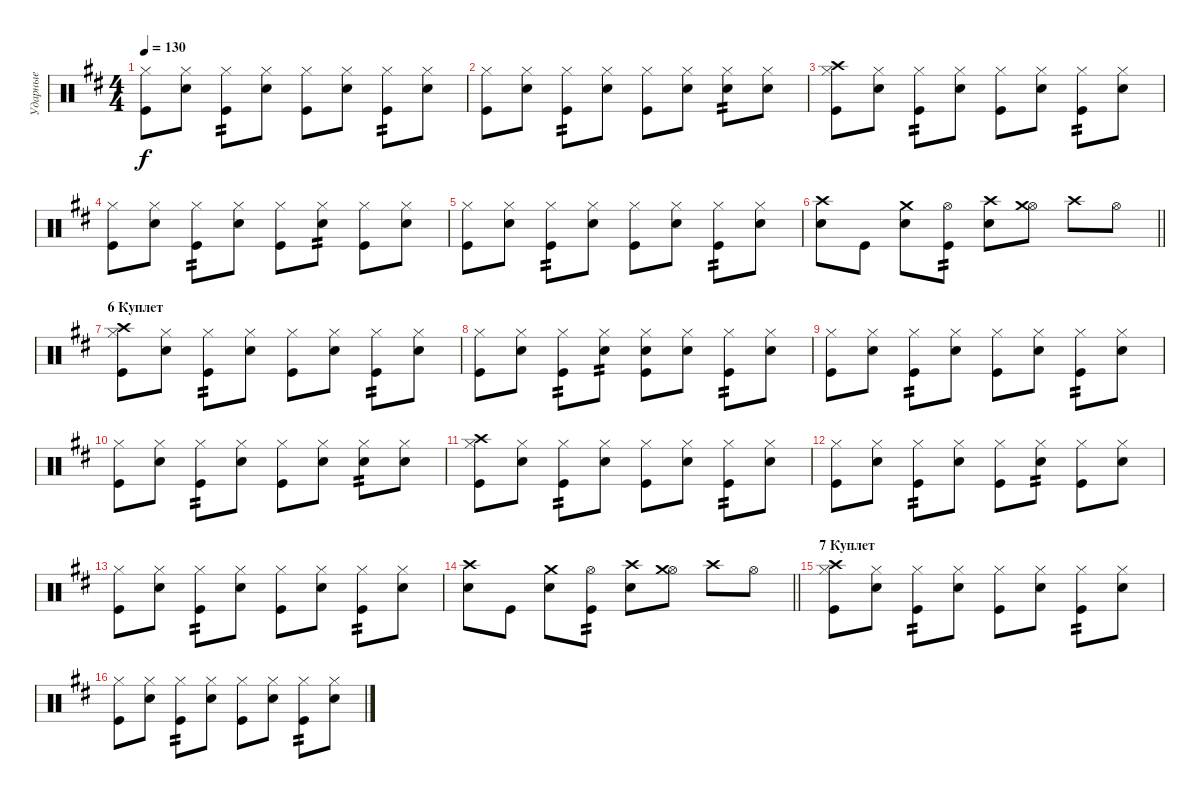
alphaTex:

\track ("Ударные" "Ударные") {instrument percussion}
\staff {score}
\articulation defaults
\ts (4 4)
\tempo 130
\clef neutral
\ks bminor
("Hi-Hat (closed)" "Kick (hit)").8{dy f} ("Hi-Hat (closed)" "Electric Snare (hit)").8 ("Hi-Hat (closed)" "Kick (hit)").8{tp 2} ("Hi-Hat (closed)" "Electric Snare (hit)").8 ("Hi-Hat (closed)" "Kick (hit)").8 ("Hi-Hat (closed)" "Electric Snare (hit)").8 ("Hi-Hat (closed)" "Kick (hit)").8{tp 2} ("Hi-Hat (closed)" "Electric Snare (hit)").8 |
("Hi-Hat (closed)" "Kick (hit)").8 ("Hi-Hat (closed)" "Electric Snare (hit)").8 ("Hi-Hat (closed)" "Kick (hit)").8{tp 2} ("Hi-Hat (closed)" "Electric Snare (hit)").8 ("Hi-Hat (closed)" "Kick (hit)").8 ("Hi-Hat (closed)" "Electric Snare (hit)").8 ("Hi-Hat (closed)" "Electric Snare (hit)").8{tp 2} ("Hi-Hat (closed)" "Electric Snare (hit)").8 |
("Hi-Hat (closed)" "Crash high (hit)" "Kick (hit)").8 ("Hi-Hat (closed)" "Electric Snare (hit)").8 ("Hi-Hat (closed)" "Kick (hit)").8{tp 2} ("Hi-Hat (closed)" "Electric Snare (hit)").8 ("Hi-Hat (closed)" "Kick (hit)").8 ("Hi-Hat (closed)" "Electric Snare (hit)").8 ("Hi-Hat (closed)" "Kick (hit)").8{tp 2} ("Hi-Hat (closed)" "Electric Snare (hit)").8 |
("Hi-Hat (closed)" "Kick (hit)").8 ("Hi-Hat (closed)" "Electric Snare (hit)").8 ("Hi-Hat (closed)" "Kick (hit)").8{tp 2} ("Hi-Hat (closed)" "Electric Snare (hit)").8 ("Hi-Hat (closed)" "Kick (hit)").8 ("Hi-Hat (closed)" "Electric Snare (hit)").8{tp 2} ("Hi-Hat (closed)" "Kick (hit)").8 ("Hi-Hat (closed)" "Electric Snare (hit)").8 |
("Hi-Hat (closed)" "Kick (hit)").8 ("Hi-Hat (closed)" "Electric Snare (hit)").8 ("Hi-Hat (closed)" "Kick (hit)").8{tp 2} ("Hi-Hat (closed)" "Electric Snare (hit)").8 ("Hi-Hat (closed)" "Kick (hit)").8 ("Hi-Hat (closed)" "Electric Snare (hit)").8 ("Hi-Hat (closed)" "Kick (hit)").8{tp 2} ("Hi-Hat (closed)" "Electric Snare (hit)").8 |
\barLineRight lightlight
("Crash high (hit)" "Electric Snare (hit)").8 "Kick (hit)".8 ("Crash medium (hit)" "Electric Snare (hit)").8 ("Hi-Hat (open)" "Kick (hit)").8{tp 2} ("Crash high (hit)" "Electric Snare (hit)").8 ("Hi-Hat (open)" "Crash medium (hit)").8 "Crash high (hit)".8 "Hi-Hat (open)".8 |
\section ("" "6 Куплет")
("Hi-Hat (closed)" "Crash high (hit)" "Kick (hit)").8 ("Hi-Hat (closed)" "Electric Snare (hit)").8 ("Hi-Hat (closed)" "Kick (hit)").8{tp 2} ("Hi-Hat (closed)" "Electric Snare (hit)").8 ("Hi-Hat (closed)" "Kick (hit)").8 ("Hi-Hat (closed)" "Electric Snare (hit)").8 ("Hi-Hat (closed)" "Kick (hit)").8{tp 2} ("Hi-Hat (closed)" "Electric Snare (hit)").8 |
("Hi-Hat (closed)" "Kick (hit)").8 ("Hi-Hat (closed)" "Electric Snare (hit)").8 ("Hi-Hat (closed)" "Kick (hit)").8{tp 2} ("Hi-Hat (closed)" "Electric Snare (hit)").8{tp 2} ("Hi-Hat (closed)" "Electric Snare (hit)" "Kick (hit)").8 ("Hi-Hat (closed)" "Electric Snare (hit)").8 ("Hi-Hat (closed)" "Kick (hit)").8{tp 2} ("Hi-Hat (closed)" "Electric Snare (hit)").8 |
("Hi-Hat (closed)" "Kick (hit)").8 ("Hi-Hat (closed)" "Electric Snare (hit)").8 ("Hi-Hat (closed)" "Kick (hit)").8{tp 2} ("Hi-Hat (closed)" "Electric Snare (hit)").8 ("Hi-Hat (closed)" "Kick (hit)").8 ("Hi-Hat (closed)" "Electric Snare (hit)").8 ("Hi-Hat (closed)" "Kick (hit)").8{tp 2} ("Hi-Hat (closed)" "Electric Snare (hit)").8 |
("Hi-Hat (closed)" "Kick (hit)").8 ("Hi-Hat (closed)" "Electric Snare (hit)").8 ("Hi-Hat (closed)" "Kick (hit)").8{tp 2} ("Hi-Hat (closed)" "Electric Snare (hit)").8 ("Hi-Hat (closed)" "Kick (hit)").8 ("Hi-Hat (closed)" "Electric Snare (hit)").8 ("Hi-Hat (closed)" "Electric Snare (hit)").8{tp 2} ("Hi-Hat (closed)" "Electric Snare (hit)").8 |
("Hi-Hat (closed)" "Crash high (hit)" "Kick (hit)").8 ("Hi-Hat (closed)" "Electric Snare (hit)").8 ("Hi-Hat (closed)" "Kick (hit)").8{tp 2} ("Hi-Hat (closed)" "Electric Snare (hit)").8 ("Hi-Hat (closed)" "Kick (hit)").8 ("Hi-Hat (closed)" "Electric Snare (hit)").8 ("Hi-Hat (closed)" "Kick (hit)").8{tp 2} ("Hi-Hat (closed)" "Electric Snare (hit)").8 |
("Hi-Hat (closed)" "Kick (hit)").8 ("Hi-Hat (closed)" "Electric Snare (hit)").8 ("Hi-Hat (closed)" "Kick (hit)").8{tp 2} ("Hi-Hat (closed)" "Electric Snare (hit)").8 ("Hi-Hat (closed)" "Kick (hit)").8 ("Hi-Hat (closed)" "Electric Snare (hit)").8{tp 2} ("Hi-Hat (closed)" "Kick (hit)").8 ("Hi-Hat (closed)" "Electric Snare (hit)").8 |
("Hi-Hat (closed)" "Kick (hit)").8 ("Hi-Hat (closed)" "Electric Snare (hit)").8 ("Hi-Hat (closed)" "Kick (hit)").8{tp 2} ("Hi-Hat (closed)" "Electric Snare (hit)").8 ("Hi-Hat (closed)" "Kick (hit)").8 ("Hi-Hat (closed)" "Electric Snare (hit)").8 ("Hi-Hat (closed)" "Kick (hit)").8{tp 2} ("Hi-Hat (closed)" "Electric Snare (hit)").8 |
\barLineRight lightlight
("Crash high (hit)" "Electric Snare (hit)").8 "Kick (hit)".8 ("Crash medium (hit)" "Electric Snare (hit)").8 ("Hi-Hat (open)" "Kick (hit)").8{tp 2} ("Crash high (hit)" "Electric Snare (hit)").8 ("Hi-Hat (open)" "Crash medium (hit)").8 "Crash high (hit)".8 "Hi-Hat (open)".8 |
\section ("" "7 Куплет")
("Hi-Hat (closed)" "Crash high (hit)" "Kick (hit)").8 ("Hi-Hat (closed)" "Electric Snare (hit)").8 ("Hi-Hat (closed)" "Kick (hit)").8{tp 2} ("Hi-Hat (closed)" "Electric Snare (hit)").8 ("Hi-Hat (closed)" "Kick (hit)").8 ("Hi-Hat (closed)" "Electric Snare (hit)").8 ("Hi-Hat (closed)" "Kick (hit)").8{tp 2} ("Hi-Hat (closed)" "Electric Snare (hit)").8 |
("Hi-Hat (closed)" "Kick (hit)").8 ("Hi-Hat (closed)" "Electric Snare (hit)").8 ("Hi-Hat (closed)" "Kick (hit)").8{tp 2} ("Hi-Hat (closed)" "Electric Snare (hit)").8 ("Hi-Hat (closed)" "Kick (hit)").8 ("Hi-Hat (closed)" "Electric Snare (hit)").8 ("Hi-Hat (closed)" "Kick (hit)").8{tp 2} ("Hi-Hat (closed)" "Electric Snare (hit)").8
